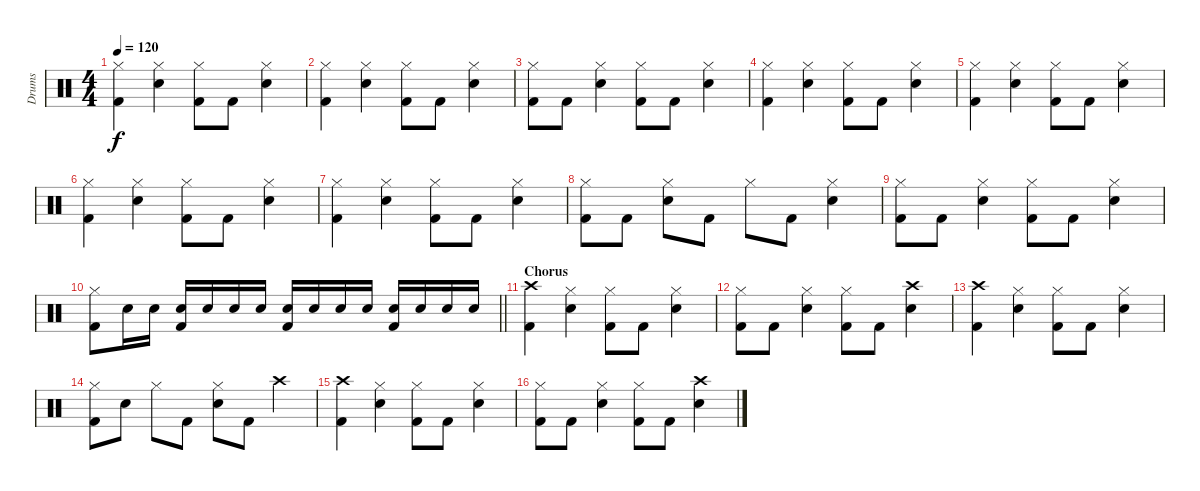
\track ("Drums" "Drums") {instrument percussion}
\staff {score}
\articulation defaults
\ts (4 4)
\tempo 120
\clef neutral
\ks c
("Hi-Hat (closed)" "Kick (hit) 2").4{dy f} ("Hi-Hat (closed)" "Snare (hit) 2").4 ("Hi-Hat (closed)" "Kick (hit) 2").8 "Kick (hit) 2".8 ("Hi-Hat (closed)" "Snare (hit) 2").4 |
("Hi-Hat (closed)" "Kick (hit) 2").4 ("Hi-Hat (closed)" "Snare (hit) 2").4 ("Hi-Hat (closed)" "Kick (hit) 2").8 "Kick (hit) 2".8 ("Hi-Hat (closed)" "Snare (hit) 2").4 |
("Hi-Hat (closed)" "Kick (hit) 2").8 "Kick (hit) 2".8 ("Hi-Hat (closed)" "Snare (hit) 2").4 ("Hi-Hat (closed)" "Kick (hit) 2").8 "Kick (hit) 2".8 ("Hi-Hat (closed)" "Snare (hit) 2").4 |
("Hi-Hat (closed)" "Kick (hit) 2").4 ("Hi-Hat (closed)" "Snare (hit) 2").4 ("Hi-Hat (closed)" "Kick (hit) 2").8 "Kick (hit) 2".8 ("Hi-Hat (closed)" "Snare (hit) 2").4 |
("Hi-Hat (closed)" "Kick (hit) 2").4 ("Hi-Hat (closed)" "Snare (hit) 2").4 ("Hi-Hat (closed)" "Kick (hit) 2").8 "Kick (hit) 2".8 ("Hi-Hat (closed)" "Snare (hit) 2").4 |
("Hi-Hat (closed)" "Kick (hit) 2").4 ("Hi-Hat (closed)" "Snare (hit) 2").4 ("Hi-Hat (closed)" "Kick (hit) 2").8 "Kick (hit) 2".8 ("Hi-Hat (closed)" "Snare (hit) 2").4 |
("Hi-Hat (closed)" "Kick (hit) 2").4 ("Hi-Hat (closed)" "Snare (hit) 2").4 ("Hi-Hat (closed)" "Kick (hit) 2").8 "Kick (hit) 2".8 ("Hi-Hat (closed)" "Snare (hit) 2").4 |
("Hi-Hat (closed)" "Kick (hit) 2").8 "Kick (hit) 2".8 ("Hi-Hat (closed)" "Snare (hit) 2").8 "Kick (hit) 2".8 "Hi-Hat (closed)".8 "Kick (hit) 2".8 ("Hi-Hat (closed)" "Snare (hit) 2").4 |
("Hi-Hat (closed)" "Kick (hit) 2").8 "Kick (hit) 2".8 ("Hi-Hat (closed)" "Snare (hit) 2").4 ("Hi-Hat (closed)" "Kick (hit) 2").8 "Kick (hit) 2".8 ("Hi-Hat (closed)" "Snare (hit) 2").4 |
\barLineRight lightlight
("Hi-Hat (closed)" "Kick (hit) 2").8 "Snare (hit) 2".16 "Snare (hit) 2".16 ("Snare (hit) 2" "Kick (hit) 2").16 "Snare (hit) 2".16 "Snare (hit) 2".16 "Snare (hit) 2".16 ("Snare (hit) 2" "Kick (hit) 2").16 "Snare (hit) 2".16 "Snare (hit) 2".16 "Snare (hit) 2".16 ("Snare (hit) 2" "Kick (hit) 2").16 "Snare (hit) 2".16 "Snare (hit) 2".16 "Snare (hit) 2".16 |
\section ("" "Chorus")
("Crash high (hit)" "Kick (hit) 2").4 ("Hi-Hat (closed)" "Snare (hit) 2").4 ("Hi-Hat (closed)" "Kick (hit) 2").8 "Kick (hit) 2".8 ("Hi-Hat (closed)" "Snare (hit) 2").4 |
("Hi-Hat (closed)" "Kick (hit) 2").8 "Kick (hit) 2".8 ("Hi-Hat (closed)" "Snare (hit) 2").4 ("Hi-Hat (closed)" "Kick (hit) 2").8 "Kick (hit) 2".8 ("Crash high (hit)" "Snare (hit) 2").4 |
("Crash high (hit)" "Kick (hit) 2").4 ("Hi-Hat (closed)" "Snare (hit) 2").4 ("Hi-Hat (closed)" "Kick (hit) 2").8 "Kick (hit) 2".8 ("Hi-Hat (closed)" "Snare (hit) 2").4 |
("Hi-Hat (closed)" "Kick (hit) 2").8 "Snare (hit) 2".8 "Hi-Hat (closed)".8 "Kick (hit) 2".8 ("Hi-Hat (closed)" "Snare (hit) 2").8 "Kick (hit) 2".8 "Crash high (hit)".4 |
("Crash high (hit)" "Kick (hit) 2").4 ("Hi-Hat (closed)" "Snare (hit) 2").4 ("Hi-Hat (closed)" "Kick (hit) 2").8 "Kick (hit) 2".8 ("Hi-Hat (closed)" "Snare (hit) 2").4 |
("Hi-Hat (closed)" "Kick (hit) 2").8 "Kick (hit) 2".8 ("Hi-Hat (closed)" "Snare (hit) 2").4 ("Hi-Hat (closed)" "Kick (hit) 2").8 "Kick (hit) 2".8 ("Crash high (hit)" "Snare (hit) 2").4
